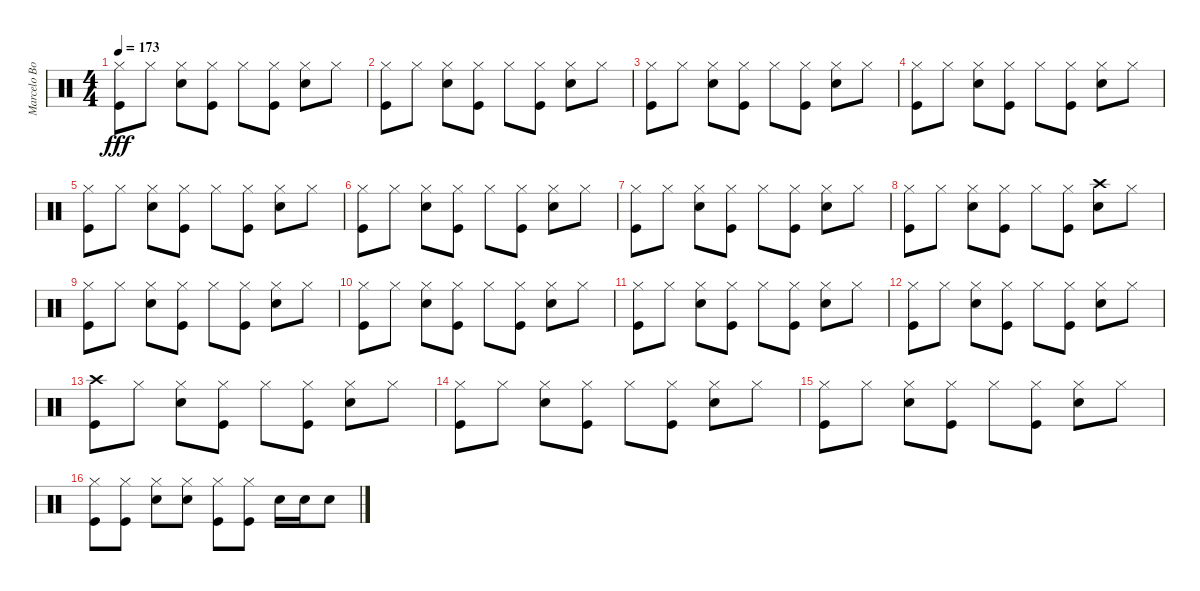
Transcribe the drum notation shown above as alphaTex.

\track ("Marcelo Bonfá (Bateria)" "Marcelo Bo") {instrument percussion}
\staff {score}
\articulation defaults
\ts (4 4)
\tempo 173
\clef neutral
\ks c
("Kick (hit)" "Hi-Hat (closed)").8{dy fff} "Hi-Hat (closed)".8 ("Snare (hit) 2" "Hi-Hat (closed)").8 ("Kick (hit)" "Hi-Hat (closed)").8 "Hi-Hat (closed)".8 ("Hi-Hat (closed)" "Kick (hit)").8 ("Snare (hit) 2" "Hi-Hat (closed)").8 "Hi-Hat (closed)".8 |
("Kick (hit)" "Hi-Hat (closed)").8 "Hi-Hat (closed)".8 ("Snare (hit) 2" "Hi-Hat (closed)").8 ("Kick (hit)" "Hi-Hat (closed)").8 "Hi-Hat (closed)".8 ("Hi-Hat (closed)" "Kick (hit)").8 ("Snare (hit) 2" "Hi-Hat (closed)").8 "Hi-Hat (closed)".8 |
("Kick (hit)" "Hi-Hat (closed)").8 "Hi-Hat (closed)".8 ("Snare (hit) 2" "Hi-Hat (closed)").8 ("Kick (hit)" "Hi-Hat (closed)").8 "Hi-Hat (closed)".8 ("Hi-Hat (closed)" "Kick (hit)").8 ("Snare (hit) 2" "Hi-Hat (closed)").8 "Hi-Hat (closed)".8 |
("Kick (hit)" "Hi-Hat (closed)").8 "Hi-Hat (closed)".8 ("Snare (hit) 2" "Hi-Hat (closed)").8 ("Kick (hit)" "Hi-Hat (closed)").8 "Hi-Hat (closed)".8 ("Hi-Hat (closed)" "Kick (hit)").8 ("Snare (hit) 2" "Hi-Hat (closed)").8 "Hi-Hat (closed)".8 |
("Kick (hit)" "Hi-Hat (closed)").8 "Hi-Hat (closed)".8 ("Snare (hit) 2" "Hi-Hat (closed)").8 ("Kick (hit)" "Hi-Hat (closed)").8 "Hi-Hat (closed)".8 ("Hi-Hat (closed)" "Kick (hit)").8 ("Snare (hit) 2" "Hi-Hat (closed)").8 "Hi-Hat (closed)".8 |
("Kick (hit)" "Hi-Hat (closed)").8 "Hi-Hat (closed)".8 ("Snare (hit) 2" "Hi-Hat (closed)").8 ("Kick (hit)" "Hi-Hat (closed)").8 "Hi-Hat (closed)".8 ("Hi-Hat (closed)" "Kick (hit)").8 ("Snare (hit) 2" "Hi-Hat (closed)").8 "Hi-Hat (closed)".8 |
("Kick (hit)" "Hi-Hat (closed)").8 "Hi-Hat (closed)".8 ("Snare (hit) 2" "Hi-Hat (closed)").8 ("Kick (hit)" "Hi-Hat (closed)").8 "Hi-Hat (closed)".8 ("Hi-Hat (closed)" "Kick (hit)").8 ("Snare (hit) 2" "Hi-Hat (closed)").8 "Hi-Hat (closed)".8 |
("Kick (hit)" "Hi-Hat (closed)").8 "Hi-Hat (closed)".8 ("Snare (hit) 2" "Hi-Hat (closed)").8 ("Kick (hit)" "Hi-Hat (closed)").8 "Hi-Hat (closed)".8 ("Hi-Hat (closed)" "Kick (hit)").8 ("Snare (hit) 2" "Crash high (hit)").8 "Hi-Hat (closed)".8 |
("Kick (hit)" "Hi-Hat (closed)").8 "Hi-Hat (closed)".8 ("Snare (hit) 2" "Hi-Hat (closed)").8 ("Kick (hit)" "Hi-Hat (closed)").8 "Hi-Hat (closed)".8 ("Hi-Hat (closed)" "Kick (hit)").8 ("Snare (hit) 2" "Hi-Hat (closed)").8 "Hi-Hat (closed)".8 |
("Kick (hit)" "Hi-Hat (closed)").8 "Hi-Hat (closed)".8 ("Snare (hit) 2" "Hi-Hat (closed)").8 ("Kick (hit)" "Hi-Hat (closed)").8 "Hi-Hat (closed)".8 ("Hi-Hat (closed)" "Kick (hit)").8 ("Snare (hit) 2" "Hi-Hat (closed)").8 "Hi-Hat (closed)".8 |
("Kick (hit)" "Hi-Hat (closed)").8 "Hi-Hat (closed)".8 ("Snare (hit) 2" "Hi-Hat (closed)").8 ("Kick (hit)" "Hi-Hat (closed)").8 "Hi-Hat (closed)".8 ("Hi-Hat (closed)" "Kick (hit)").8 ("Snare (hit) 2" "Hi-Hat (closed)").8 "Hi-Hat (closed)".8 |
("Kick (hit)" "Hi-Hat (closed)").8 "Hi-Hat (closed)".8 ("Snare (hit) 2" "Hi-Hat (closed)").8 ("Kick (hit)" "Hi-Hat (closed)").8 "Hi-Hat (closed)".8 ("Hi-Hat (closed)" "Kick (hit)").8 ("Snare (hit) 2" "Hi-Hat (closed)").8 "Hi-Hat (closed)".8 |
("Kick (hit)" "Crash high (hit)").8 "Hi-Hat (closed)".8 ("Snare (hit) 2" "Hi-Hat (closed)").8 ("Kick (hit)" "Hi-Hat (closed)").8 "Hi-Hat (closed)".8 ("Hi-Hat (closed)" "Kick (hit)").8 ("Snare (hit) 2" "Hi-Hat (closed)").8 "Hi-Hat (closed)".8 |
("Kick (hit)" "Hi-Hat (closed)").8 "Hi-Hat (closed)".8 ("Snare (hit) 2" "Hi-Hat (closed)").8 ("Kick (hit)" "Hi-Hat (closed)").8 "Hi-Hat (closed)".8 ("Hi-Hat (closed)" "Kick (hit)").8 ("Snare (hit) 2" "Hi-Hat (closed)").8 "Hi-Hat (closed)".8 |
("Kick (hit)" "Hi-Hat (closed)").8 "Hi-Hat (closed)".8 ("Snare (hit) 2" "Hi-Hat (closed)").8 ("Kick (hit)" "Hi-Hat (closed)").8 "Hi-Hat (closed)".8 ("Hi-Hat (closed)" "Kick (hit)").8 ("Snare (hit) 2" "Hi-Hat (closed)").8 "Hi-Hat (closed)".8 |
("Kick (hit)" "Hi-Hat (closed)").8 ("Kick (hit)" "Hi-Hat (closed)").8 ("Snare (hit) 2" "Hi-Hat (closed)").8 ("Snare (hit) 2" "Hi-Hat (closed)").8 ("Kick (hit)" "Hi-Hat (closed)").8 ("Kick (hit)" "Hi-Hat (closed)").8 "Snare (hit) 2".16 "Snare (hit) 2".16 "Snare (hit) 2".8
